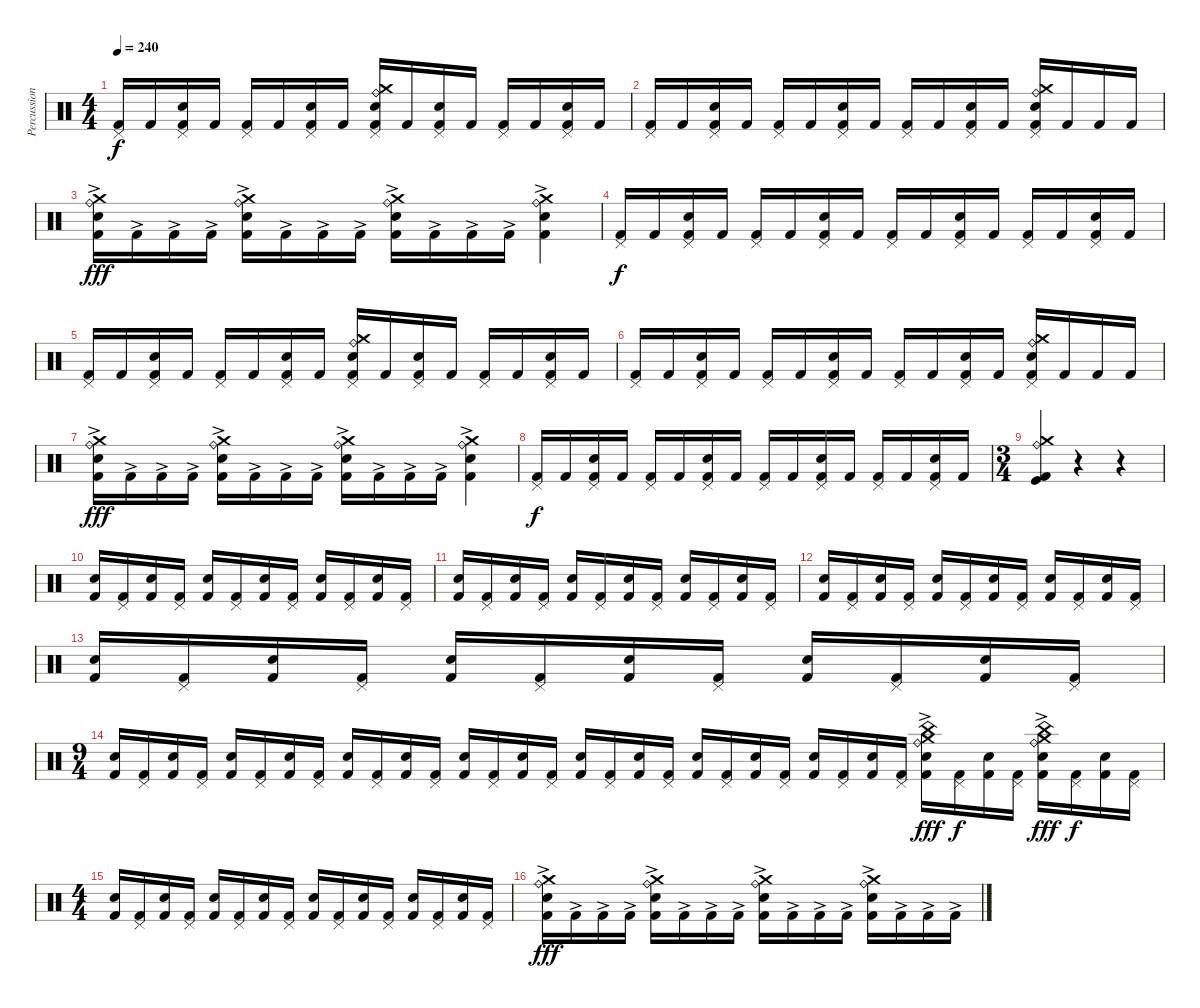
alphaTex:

\track ("Percussions" "Percussion") {instrument percussion}
\staff {score}
\articulation defaults
\ts (4 4)
\tempo 240
\clef neutral
\ks c
("Pedal Hi-Hat (hit)" "Kick (hit) 2").16{dy f} "Kick (hit) 2".16 ("Snare (hit) 2" "Pedal Hi-Hat (hit)" "Kick (hit) 2").16 "Kick (hit) 2".16 ("Pedal Hi-Hat (hit)" "Kick (hit) 2").16 "Kick (hit) 2".16 ("Snare (hit) 2" "Pedal Hi-Hat (hit)" "Kick (hit) 2").16 "Kick (hit) 2".16 ("Snare (hit) 2" "Crash medium (hit)" "Ride (bell)" "Pedal Hi-Hat (hit)" "Kick (hit) 2").16 "Kick (hit) 2".16 ("Snare (hit) 2" "Pedal Hi-Hat (hit)" "Kick (hit) 2").16 "Kick (hit) 2".16 ("Pedal Hi-Hat (hit)" "Kick (hit) 2").16 "Kick (hit) 2".16 ("Snare (hit) 2" "Pedal Hi-Hat (hit)" "Kick (hit) 2").16 "Kick (hit) 2".16 |
("Pedal Hi-Hat (hit)" "Kick (hit) 2").16 "Kick (hit) 2".16 ("Snare (hit) 2" "Pedal Hi-Hat (hit)" "Kick (hit) 2").16 "Kick (hit) 2".16 ("Pedal Hi-Hat (hit)" "Kick (hit) 2").16 "Kick (hit) 2".16 ("Snare (hit) 2" "Pedal Hi-Hat (hit)" "Kick (hit) 2").16 "Kick (hit) 2".16 ("Pedal Hi-Hat (hit)" "Kick (hit) 2").16 "Kick (hit) 2".16 ("Snare (hit) 2" "Pedal Hi-Hat (hit)" "Kick (hit) 2").16 "Kick (hit) 2".16 ("Snare (hit) 2" "Crash medium (hit)" "Ride (bell)" "Pedal Hi-Hat (hit)" "Kick (hit) 2").16 "Kick (hit) 2".16 "Kick (hit) 2".16 "Kick (hit) 2".16 |
("Snare (hit) 2" "Crash medium (hit)" "Ride (bell)" "Kick (hit) 2"{ac}).16{dy fff} "Kick (hit) 2"{ac}.16 "Kick (hit) 2"{ac}.16 "Kick (hit) 2"{ac}.16 ("Snare (hit) 2" "Crash medium (hit)" "Ride (bell)" "Kick (hit) 2"{ac}).16 "Kick (hit) 2"{ac}.16 "Kick (hit) 2"{ac}.16 "Kick (hit) 2"{ac}.16 ("Snare (hit) 2" "Crash medium (hit)" "Ride (bell)" "Kick (hit) 2"{ac}).16 "Kick (hit) 2"{ac}.16 "Kick (hit) 2"{ac}.16 "Kick (hit) 2"{ac}.16 ("Snare (hit) 2" "Crash medium (hit)" "Ride (bell)" "Kick (hit) 2"{ac}).4 |
("Pedal Hi-Hat (hit)" "Kick (hit) 2").16{dy f} "Kick (hit) 2".16 ("Snare (hit) 2" "Pedal Hi-Hat (hit)" "Kick (hit) 2").16 "Kick (hit) 2".16 ("Pedal Hi-Hat (hit)" "Kick (hit) 2").16 "Kick (hit) 2".16 ("Snare (hit) 2" "Pedal Hi-Hat (hit)" "Kick (hit) 2").16 "Kick (hit) 2".16 ("Pedal Hi-Hat (hit)" "Kick (hit) 2").16 "Kick (hit) 2".16 ("Snare (hit) 2" "Pedal Hi-Hat (hit)" "Kick (hit) 2").16 "Kick (hit) 2".16 ("Pedal Hi-Hat (hit)" "Kick (hit) 2").16 "Kick (hit) 2".16 ("Snare (hit) 2" "Pedal Hi-Hat (hit)" "Kick (hit) 2").16 "Kick (hit) 2".16 |
("Pedal Hi-Hat (hit)" "Kick (hit) 2").16 "Kick (hit) 2".16 ("Snare (hit) 2" "Pedal Hi-Hat (hit)" "Kick (hit) 2").16 "Kick (hit) 2".16 ("Pedal Hi-Hat (hit)" "Kick (hit) 2").16 "Kick (hit) 2".16 ("Snare (hit) 2" "Pedal Hi-Hat (hit)" "Kick (hit) 2").16 "Kick (hit) 2".16 ("Snare (hit) 2" "Crash medium (hit)" "Ride (bell)" "Pedal Hi-Hat (hit)" "Kick (hit) 2").16 "Kick (hit) 2".16 ("Snare (hit) 2" "Pedal Hi-Hat (hit)" "Kick (hit) 2").16 "Kick (hit) 2".16 ("Pedal Hi-Hat (hit)" "Kick (hit) 2").16 "Kick (hit) 2".16 ("Snare (hit) 2" "Pedal Hi-Hat (hit)" "Kick (hit) 2").16 "Kick (hit) 2".16 |
("Pedal Hi-Hat (hit)" "Kick (hit) 2").16 "Kick (hit) 2".16 ("Snare (hit) 2" "Pedal Hi-Hat (hit)" "Kick (hit) 2").16 "Kick (hit) 2".16 ("Pedal Hi-Hat (hit)" "Kick (hit) 2").16 "Kick (hit) 2".16 ("Snare (hit) 2" "Pedal Hi-Hat (hit)" "Kick (hit) 2").16 "Kick (hit) 2".16 ("Pedal Hi-Hat (hit)" "Kick (hit) 2").16 "Kick (hit) 2".16 ("Snare (hit) 2" "Pedal Hi-Hat (hit)" "Kick (hit) 2").16 "Kick (hit) 2".16 ("Snare (hit) 2" "Crash medium (hit)" "Ride (bell)" "Pedal Hi-Hat (hit)" "Kick (hit) 2").16 "Kick (hit) 2".16 "Kick (hit) 2".16 "Kick (hit) 2".16 |
("Snare (hit) 2" "Crash medium (hit)" "Ride (bell)" "Kick (hit) 2"{ac}).16{dy fff} "Kick (hit) 2"{ac}.16 "Kick (hit) 2"{ac}.16 "Kick (hit) 2"{ac}.16 ("Snare (hit) 2" "Crash medium (hit)" "Ride (bell)" "Kick (hit) 2"{ac}).16 "Kick (hit) 2"{ac}.16 "Kick (hit) 2"{ac}.16 "Kick (hit) 2"{ac}.16 ("Snare (hit) 2" "Crash medium (hit)" "Ride (bell)" "Kick (hit) 2"{ac}).16 "Kick (hit) 2"{ac}.16 "Kick (hit) 2"{ac}.16 "Kick (hit) 2"{ac}.16 ("Snare (hit) 2" "Crash medium (hit)" "Ride (bell)" "Kick (hit) 2"{ac}).4 |
("Pedal Hi-Hat (hit)" "Kick (hit) 2").16{dy f} "Kick (hit) 2".16 ("Snare (hit) 2" "Pedal Hi-Hat (hit)" "Kick (hit) 2").16 "Kick (hit) 2".16 ("Pedal Hi-Hat (hit)" "Kick (hit) 2").16 "Kick (hit) 2".16 ("Snare (hit) 2" "Pedal Hi-Hat (hit)" "Kick (hit) 2").16 "Kick (hit) 2".16 ("Pedal Hi-Hat (hit)" "Kick (hit) 2").16 "Kick (hit) 2".16 ("Snare (hit) 2" "Pedal Hi-Hat (hit)" "Kick (hit) 2").16 "Kick (hit) 2".16 ("Pedal Hi-Hat (hit)" "Kick (hit) 2").16 "Kick (hit) 2".16 ("Snare (hit) 2" "Pedal Hi-Hat (hit)" "Kick (hit) 2").16 "Kick (hit) 2".16 |
\ts (3 4)
("Ride (bell)" "Crash medium (hit)" "Kick (hit)" "Kick (hit) 2").4 r.4 r.4 |
("Snare (hit) 2" "Kick (hit) 2").16 ("Pedal Hi-Hat (hit)" "Kick (hit) 2").16 ("Snare (hit) 2" "Kick (hit) 2").16 ("Pedal Hi-Hat (hit)" "Kick (hit) 2").16 ("Snare (hit) 2" "Kick (hit) 2").16 ("Pedal Hi-Hat (hit)" "Kick (hit) 2").16 ("Snare (hit) 2" "Kick (hit) 2").16 ("Pedal Hi-Hat (hit)" "Kick (hit) 2").16 ("Snare (hit) 2" "Kick (hit) 2").16 ("Pedal Hi-Hat (hit)" "Kick (hit) 2").16 ("Snare (hit) 2" "Kick (hit) 2").16 ("Pedal Hi-Hat (hit)" "Kick (hit) 2").16 |
("Snare (hit) 2" "Kick (hit) 2").16 ("Pedal Hi-Hat (hit)" "Kick (hit) 2").16 ("Snare (hit) 2" "Kick (hit) 2").16 ("Pedal Hi-Hat (hit)" "Kick (hit) 2").16 ("Snare (hit) 2" "Kick (hit) 2").16 ("Pedal Hi-Hat (hit)" "Kick (hit) 2").16 ("Snare (hit) 2" "Kick (hit) 2").16 ("Pedal Hi-Hat (hit)" "Kick (hit) 2").16 ("Snare (hit) 2" "Kick (hit) 2").16 ("Pedal Hi-Hat (hit)" "Kick (hit) 2").16 ("Snare (hit) 2" "Kick (hit) 2").16 ("Pedal Hi-Hat (hit)" "Kick (hit) 2").16 |
("Snare (hit) 2" "Kick (hit) 2").16 ("Pedal Hi-Hat (hit)" "Kick (hit) 2").16 ("Snare (hit) 2" "Kick (hit) 2").16 ("Pedal Hi-Hat (hit)" "Kick (hit) 2").16 ("Snare (hit) 2" "Kick (hit) 2").16 ("Pedal Hi-Hat (hit)" "Kick (hit) 2").16 ("Snare (hit) 2" "Kick (hit) 2").16 ("Pedal Hi-Hat (hit)" "Kick (hit) 2").16 ("Snare (hit) 2" "Kick (hit) 2").16 ("Pedal Hi-Hat (hit)" "Kick (hit) 2").16 ("Snare (hit) 2" "Kick (hit) 2").16 ("Pedal Hi-Hat (hit)" "Kick (hit) 2").16 |
("Snare (hit) 2" "Kick (hit) 2").16 ("Pedal Hi-Hat (hit)" "Kick (hit) 2").16 ("Snare (hit) 2" "Kick (hit) 2").16 ("Pedal Hi-Hat (hit)" "Kick (hit) 2").16 ("Snare (hit) 2" "Kick (hit) 2").16 ("Pedal Hi-Hat (hit)" "Kick (hit) 2").16 ("Snare (hit) 2" "Kick (hit) 2").16 ("Pedal Hi-Hat (hit)" "Kick (hit) 2").16 ("Snare (hit) 2" "Kick (hit) 2").16 ("Pedal Hi-Hat (hit)" "Kick (hit) 2").16 ("Snare (hit) 2" "Kick (hit) 2").16 ("Pedal Hi-Hat (hit)" "Kick (hit) 2").16 |
\ts (9 4)
("Snare (hit) 2" "Kick (hit) 2").16 ("Pedal Hi-Hat (hit)" "Kick (hit) 2").16 ("Snare (hit) 2" "Kick (hit) 2").16 ("Pedal Hi-Hat (hit)" "Kick (hit) 2").16 ("Snare (hit) 2" "Kick (hit) 2").16 ("Pedal Hi-Hat (hit)" "Kick (hit) 2").16 ("Snare (hit) 2" "Kick (hit) 2").16 ("Pedal Hi-Hat (hit)" "Kick (hit) 2").16 ("Snare (hit) 2" "Kick (hit) 2").16 ("Pedal Hi-Hat (hit)" "Kick (hit) 2").16 ("Snare (hit) 2" "Kick (hit) 2").16 ("Pedal Hi-Hat (hit)" "Kick (hit) 2").16 ("Snare (hit) 2" "Kick (hit) 2").16 ("Pedal Hi-Hat (hit)" "Kick (hit) 2").16 ("Snare (hit) 2" "Kick (hit) 2").16 ("Pedal Hi-Hat (hit)" "Kick (hit) 2").16 ("Snare (hit) 2" "Kick (hit) 2").16 ("Pedal Hi-Hat (hit)" "Kick (hit) 2").16 ("Snare (hit) 2" "Kick (hit) 2").16 ("Pedal Hi-Hat (hit)" "Kick (hit) 2").16 ("Snare (hit) 2" "Kick (hit) 2").16 ("Pedal Hi-Hat (hit)" "Kick (hit) 2").16 ("Snare (hit) 2" "Kick (hit) 2").16 ("Pedal Hi-Hat (hit)" "Kick (hit) 2").16 ("Snare (hit) 2" "Kick (hit) 2").16 ("Pedal Hi-Hat (hit)" "Kick (hit) 2").16 ("Snare (hit) 2" "Kick (hit) 2").16 ("Pedal Hi-Hat (hit)" "Kick (hit) 2").16 ("Ride (bell)"{ac} "Crash medium (hit)" "China (hit)" "Snare (hit) 2" "Kick (hit) 2").16{dy fff} ("Pedal Hi-Hat (hit)" "Kick (hit) 2").16{dy f} ("Snare (hit) 2" "Kick (hit) 2").16 ("Pedal Hi-Hat (hit)" "Kick (hit) 2").16 ("Ride (bell)"{ac} "Crash medium (hit)" "China (hit)" "Snare (hit) 2" "Kick (hit) 2").16{dy fff} ("Pedal Hi-Hat (hit)" "Kick (hit) 2").16{dy f} ("Snare (hit) 2" "Kick (hit) 2").16 ("Pedal Hi-Hat (hit)" "Kick (hit) 2").16 |
\ts (4 4)
("Snare (hit) 2" "Kick (hit) 2").16 ("Pedal Hi-Hat (hit)" "Kick (hit) 2").16 ("Snare (hit) 2" "Kick (hit) 2").16 ("Pedal Hi-Hat (hit)" "Kick (hit) 2").16 ("Snare (hit) 2" "Kick (hit) 2").16 ("Pedal Hi-Hat (hit)" "Kick (hit) 2").16 ("Snare (hit) 2" "Kick (hit) 2").16 ("Pedal Hi-Hat (hit)" "Kick (hit) 2").16 ("Snare (hit) 2" "Kick (hit) 2").16 ("Pedal Hi-Hat (hit)" "Kick (hit) 2").16 ("Snare (hit) 2" "Kick (hit) 2").16 ("Pedal Hi-Hat (hit)" "Kick (hit) 2").16 ("Snare (hit) 2" "Kick (hit) 2").16 ("Pedal Hi-Hat (hit)" "Kick (hit) 2").16 ("Snare (hit) 2" "Kick (hit) 2").16 ("Pedal Hi-Hat (hit)" "Kick (hit) 2").16 |
("Snare (hit) 2" "Crash medium (hit)" "Ride (bell)" "Kick (hit) 2"{ac}).16{dy fff} "Kick (hit) 2"{ac}.16 "Kick (hit) 2"{ac}.16 "Kick (hit) 2"{ac}.16 ("Snare (hit) 2" "Crash medium (hit)" "Ride (bell)" "Kick (hit) 2"{ac}).16 "Kick (hit) 2"{ac}.16 "Kick (hit) 2"{ac}.16 "Kick (hit) 2"{ac}.16 ("Snare (hit) 2" "Crash medium (hit)" "Ride (bell)" "Kick (hit) 2"{ac}).16 "Kick (hit) 2"{ac}.16 "Kick (hit) 2"{ac}.16 "Kick (hit) 2"{ac}.16 ("Snare (hit) 2" "Crash medium (hit)" "Ride (bell)" "Kick (hit) 2"{ac}).16 "Kick (hit) 2"{ac}.16 "Kick (hit) 2"{ac}.16 "Kick (hit) 2"{ac}.16
